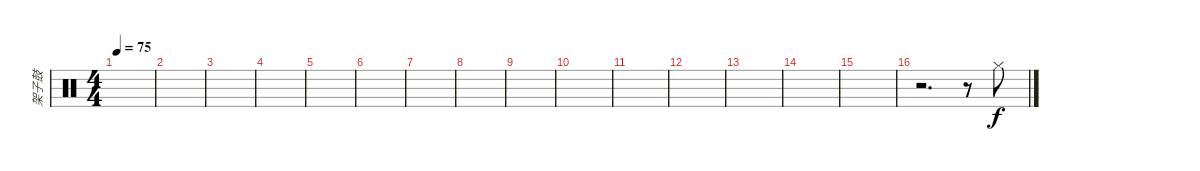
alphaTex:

\track ("架子鼓" "架子鼓") {instrument percussion}
\staff {score}
\articulation defaults
\ts (4 4)
\tempo 75
\clef neutral
\ks c
|
|
|
|
|
|
|
|
|
|
|
|
|
|
|
r.2{d} r.8 "Hi-Hat (closed)".8
